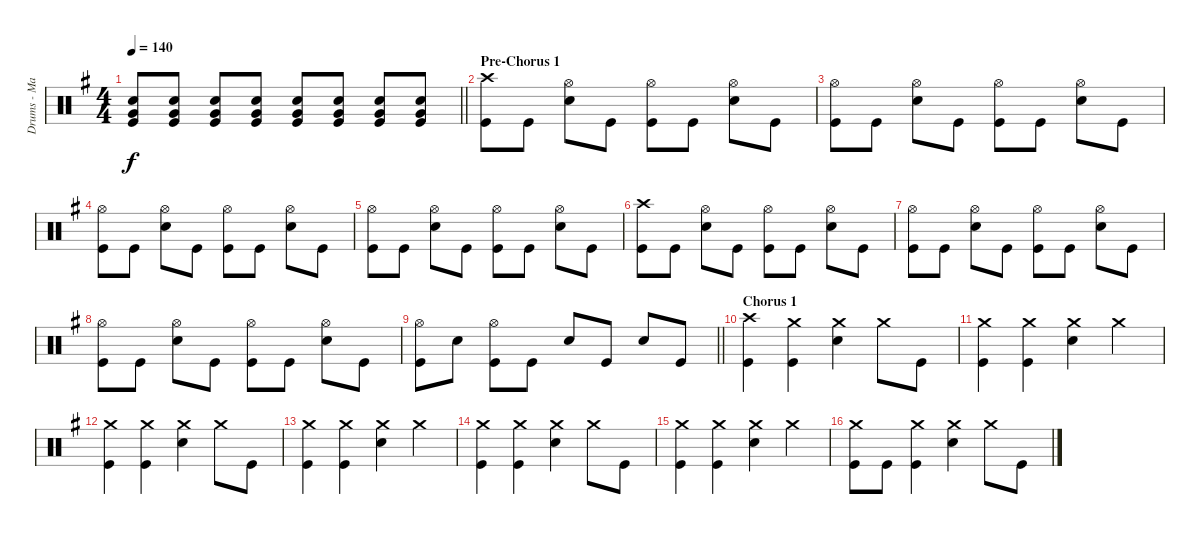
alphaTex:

\track ("Drums - Mark O'Connell" "Drums - Ma") {instrument percussion}
\staff {score}
\articulation defaults
\ts (4 4)
\tempo 140
\clef neutral
\barLineRight lightlight
\ks g
("Very Low Tom (hit)" "Snare (hit) 2" "Kick (hit)").8{dy f volume 14} ("Very Low Tom (hit)" "Snare (hit) 2" "Kick (hit)").8 ("Very Low Tom (hit)" "Snare (hit) 2" "Kick (hit)").8 ("Very Low Tom (hit)" "Snare (hit) 2" "Kick (hit)").8 ("Very Low Tom (hit)" "Snare (hit) 2" "Kick (hit)").8 ("Very Low Tom (hit)" "Snare (hit) 2" "Kick (hit)").8 ("Very Low Tom (hit)" "Snare (hit) 2" "Kick (hit)").8 ("Very Low Tom (hit)" "Snare (hit) 2" "Kick (hit)").8 |
\section ("" "Pre-Chorus 1")
("Crash high (hit)" "Kick (hit)").8 "Kick (hit)".8 ("Hi-Hat (open)" "Snare (hit) 2").8 "Kick (hit)".8 ("Hi-Hat (open)" "Kick (hit)").8 "Kick (hit)".8 ("Hi-Hat (open)" "Snare (hit) 2").8 "Kick (hit)".8 |
("Hi-Hat (open)" "Kick (hit)").8 "Kick (hit)".8 ("Hi-Hat (open)" "Snare (hit) 2").8 "Kick (hit)".8 ("Hi-Hat (open)" "Kick (hit)").8 "Kick (hit)".8 ("Hi-Hat (open)" "Snare (hit) 2").8 "Kick (hit)".8 |
("Hi-Hat (open)" "Kick (hit)").8 "Kick (hit)".8 ("Hi-Hat (open)" "Snare (hit) 2").8 "Kick (hit)".8 ("Hi-Hat (open)" "Kick (hit)").8 "Kick (hit)".8 ("Hi-Hat (open)" "Snare (hit) 2").8 "Kick (hit)".8 |
("Hi-Hat (open)" "Kick (hit)").8 "Kick (hit)".8 ("Hi-Hat (open)" "Snare (hit) 2").8 "Kick (hit)".8 ("Hi-Hat (open)" "Kick (hit)").8 "Kick (hit)".8 ("Hi-Hat (open)" "Snare (hit) 2").8 "Kick (hit)".8 |
("Crash high (hit)" "Kick (hit)").8 "Kick (hit)".8 ("Hi-Hat (open)" "Snare (hit) 2").8 "Kick (hit)".8 ("Hi-Hat (open)" "Kick (hit)").8 "Kick (hit)".8 ("Hi-Hat (open)" "Snare (hit) 2").8 "Kick (hit)".8 |
("Hi-Hat (open)" "Kick (hit)").8 "Kick (hit)".8 ("Hi-Hat (open)" "Snare (hit) 2").8 "Kick (hit)".8 ("Hi-Hat (open)" "Kick (hit)").8 "Kick (hit)".8 ("Hi-Hat (open)" "Snare (hit) 2").8 "Kick (hit)".8 |
("Hi-Hat (open)" "Kick (hit)").8 "Kick (hit)".8 ("Hi-Hat (open)" "Snare (hit) 2").8 "Kick (hit)".8 ("Hi-Hat (open)" "Kick (hit)").8 "Kick (hit)".8 ("Hi-Hat (open)" "Snare (hit) 2").8 "Kick (hit)".8 |
\barLineRight lightlight
("Hi-Hat (open)" "Kick (hit)").8 "Snare (hit) 2".8 ("Hi-Hat (open)" "Kick (hit)").8 "Kick (hit)".8 "Snare (hit) 2".8 "Kick (hit)".8 "Snare (hit) 2".8 "Kick (hit)".8 |
\section ("" "Chorus 1")
("Crash high (hit)" "Kick (hit)").4 ("Crash medium (hit)" "Kick (hit)").4 ("Crash medium (hit)" "Snare (hit) 2").4 "Crash medium (hit)".8 "Kick (hit)".8 |
("Crash medium (hit)" "Kick (hit)").4 ("Crash medium (hit)" "Kick (hit)").4 ("Crash medium (hit)" "Snare (hit) 2").4 "Crash medium (hit)".4 |
("Crash medium (hit)" "Kick (hit)").4 ("Crash medium (hit)" "Kick (hit)").4 ("Crash medium (hit)" "Snare (hit) 2").4 "Crash medium (hit)".8 "Kick (hit)".8 |
("Crash medium (hit)" "Kick (hit)").4 ("Crash medium (hit)" "Kick (hit)").4 ("Crash medium (hit)" "Snare (hit) 2").4 "Crash medium (hit)".4 |
("Crash medium (hit)" "Kick (hit)").4 ("Crash medium (hit)" "Kick (hit)").4 ("Crash medium (hit)" "Snare (hit) 2").4 "Crash medium (hit)".8 "Kick (hit)".8 |
("Crash medium (hit)" "Kick (hit)").4 ("Crash medium (hit)" "Kick (hit)").4 ("Crash medium (hit)" "Snare (hit) 2").4 "Crash medium (hit)".4 |
("Crash medium (hit)" "Kick (hit)").8 "Kick (hit)".8 ("Crash medium (hit)" "Kick (hit)").4 ("Crash medium (hit)" "Snare (hit) 2").4 "Crash medium (hit)".8 "Kick (hit)".8
